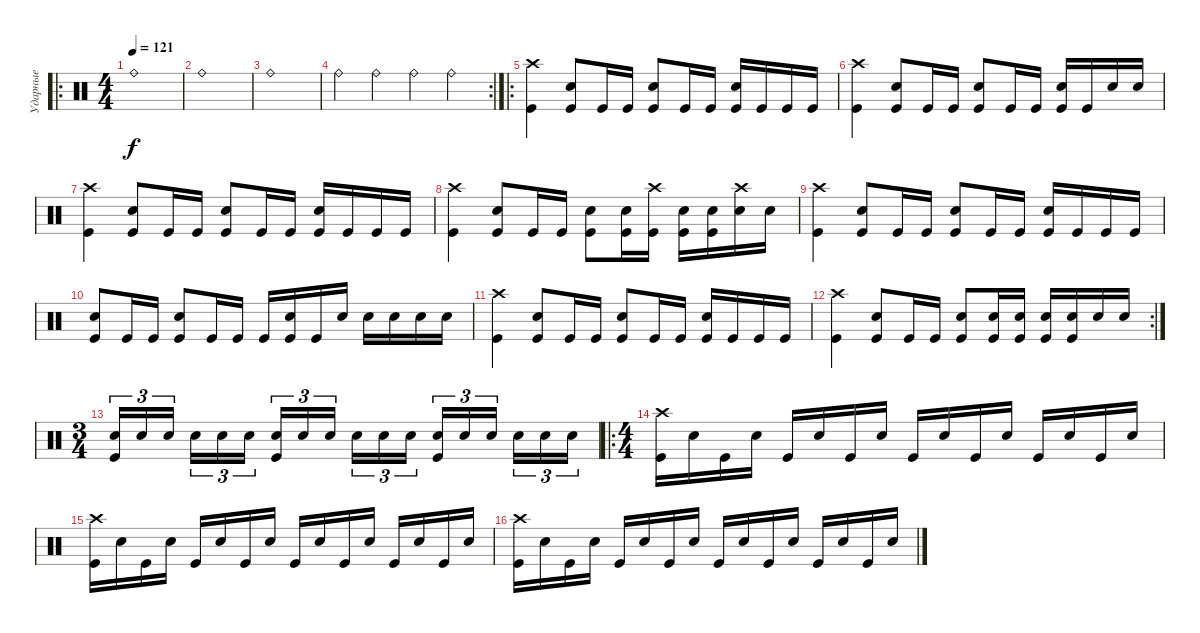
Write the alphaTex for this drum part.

\track ("Ударные" "Ударные") {instrument percussion}
\staff {score}
\articulation defaults
\ro
\ts (4 4)
\tempo 121
\clef neutral
\ks c "Ride (bell)".1{dy f}
|
"Ride (bell)".1 |
"Ride (bell)".1 |
\rc 2 "Ride (bell)".4 "Ride (bell)".4 "Ride (bell)".4 "Ride (bell)".4
|
\ro
("Crash high (hit)" "Kick (hit)").4 ("Electric Snare (hit)" "Kick (hit)").8 "Kick (hit)".16 "Kick (hit)".16 ("Electric Snare (hit)" "Kick (hit)").8 "Kick (hit)".16 "Kick (hit)".16 ("Electric Snare (hit)" "Kick (hit)").16 "Kick (hit)".16 "Kick (hit)".16 "Kick (hit)".16 |
("Crash high (hit)" "Kick (hit)").4 ("Electric Snare (hit)" "Kick (hit)").8 "Kick (hit)".16 "Kick (hit)".16 ("Electric Snare (hit)" "Kick (hit)").8 "Kick (hit)".16 "Kick (hit)".16 ("Electric Snare (hit)" "Kick (hit)").16 "Kick (hit)".16 "Electric Snare (hit)".16 "Electric Snare (hit)".16 |
("Crash high (hit)" "Kick (hit)").4 ("Electric Snare (hit)" "Kick (hit)").8 "Kick (hit)".16 "Kick (hit)".16 ("Electric Snare (hit)" "Kick (hit)").8 "Kick (hit)".16 "Kick (hit)".16 ("Electric Snare (hit)" "Kick (hit)").16 "Kick (hit)".16 "Kick (hit)".16 "Kick (hit)".16 |
("Crash high (hit)" "Kick (hit)").4 ("Electric Snare (hit)" "Kick (hit)").8 "Kick (hit)".16 "Kick (hit)".16 ("Electric Snare (hit)" "Kick (hit)").8 ("Electric Snare (hit)" "Kick (hit)").16 ("Crash high (hit)" "Kick (hit)").16 ("Electric Snare (hit)" "Kick (hit)").16 ("Electric Snare (hit)" "Kick (hit)").16 ("Crash high (hit)" "Electric Snare (hit)").16 "Electric Snare (hit)".16 |
("Crash high (hit)" "Kick (hit)").4 ("Electric Snare (hit)" "Kick (hit)").8 "Kick (hit)".16 "Kick (hit)".16 ("Electric Snare (hit)" "Kick (hit)").8 "Kick (hit)".16 "Kick (hit)".16 ("Electric Snare (hit)" "Kick (hit)").16 "Kick (hit)".16 "Kick (hit)".16 "Kick (hit)".16 |
("Electric Snare (hit)" "Kick (hit)").8 "Kick (hit)".16 "Kick (hit)".16 ("Electric Snare (hit)" "Kick (hit)").8 "Kick (hit)".16 "Kick (hit)".16 "Kick (hit)".16 ("Electric Snare (hit)" "Kick (hit)").16 "Kick (hit)".16 "Electric Snare (hit)".16 "Electric Snare (hit)".16 "Electric Snare (hit)".16 "Electric Snare (hit)".16 "Electric Snare (hit)".16 |
("Crash high (hit)" "Kick (hit)").4 ("Electric Snare (hit)" "Kick (hit)").8 "Kick (hit)".16 "Kick (hit)".16 ("Electric Snare (hit)" "Kick (hit)").8 "Kick (hit)".16 "Kick (hit)".16 ("Electric Snare (hit)" "Kick (hit)").16 "Kick (hit)".16 "Kick (hit)".16 "Kick (hit)".16 |
\rc 2
("Crash high (hit)" "Kick (hit)").4 ("Electric Snare (hit)" "Kick (hit)").8 "Kick (hit)".16 "Kick (hit)".16 ("Electric Snare (hit)" "Kick (hit)").8 ("Electric Snare (hit)" "Kick (hit)").16 ("Electric Snare (hit)" "Kick (hit)").16 ("Electric Snare (hit)" "Kick (hit)").16 ("Electric Snare (hit)" "Kick (hit)").16 "Electric Snare (hit)".16 "Electric Snare (hit)".16 |
\ts (3 4)
("Electric Snare (hit)" "Kick (hit)").16{tu (3 2)} "Electric Snare (hit)".16{tu (3 2)} "Electric Snare (hit)".16{tu (3 2)} "Electric Snare (hit)".16{tu (3 2)} "Electric Snare (hit)".16{tu (3 2)} "Electric Snare (hit)".16{tu (3 2)} ("Electric Snare (hit)" "Kick (hit)").16{tu (3 2)} "Electric Snare (hit)".16{tu (3 2)} "Electric Snare (hit)".16{tu (3 2)} "Electric Snare (hit)".16{tu (3 2)} "Electric Snare (hit)".16{tu (3 2)} "Electric Snare (hit)".16{tu (3 2)} ("Electric Snare (hit)" "Kick (hit)").16{tu (3 2)} "Electric Snare (hit)".16{tu (3 2)} "Electric Snare (hit)".16{tu (3 2)} "Electric Snare (hit)".16{tu (3 2)} "Electric Snare (hit)".16{tu (3 2)} "Electric Snare (hit)".16{tu (3 2)} |
\ro
\ts (4 4)
("Crash high (hit)" "Kick (hit)").16 "Electric Snare (hit)".16 "Kick (hit)".16 "Electric Snare (hit)".16 "Kick (hit)".16 "Electric Snare (hit)".16 "Kick (hit)".16 "Electric Snare (hit)".16 "Kick (hit)".16 "Electric Snare (hit)".16 "Kick (hit)".16 "Electric Snare (hit)".16 "Kick (hit)".16 "Electric Snare (hit)".16 "Kick (hit)".16 "Electric Snare (hit)".16 |
("Crash high (hit)" "Kick (hit)").16 "Electric Snare (hit)".16 "Kick (hit)".16 "Electric Snare (hit)".16 "Kick (hit)".16 "Electric Snare (hit)".16 "Kick (hit)".16 "Electric Snare (hit)".16 "Kick (hit)".16 "Electric Snare (hit)".16 "Kick (hit)".16 "Electric Snare (hit)".16 "Kick (hit)".16 "Electric Snare (hit)".16 "Kick (hit)".16 "Electric Snare (hit)".16 |
("Crash high (hit)" "Kick (hit)").16 "Electric Snare (hit)".16 "Kick (hit)".16 "Electric Snare (hit)".16 "Kick (hit)".16 "Electric Snare (hit)".16 "Kick (hit)".16 "Electric Snare (hit)".16 "Kick (hit)".16 "Electric Snare (hit)".16 "Kick (hit)".16 "Electric Snare (hit)".16 "Kick (hit)".16 "Electric Snare (hit)".16 "Kick (hit)".16 "Electric Snare (hit)".16
